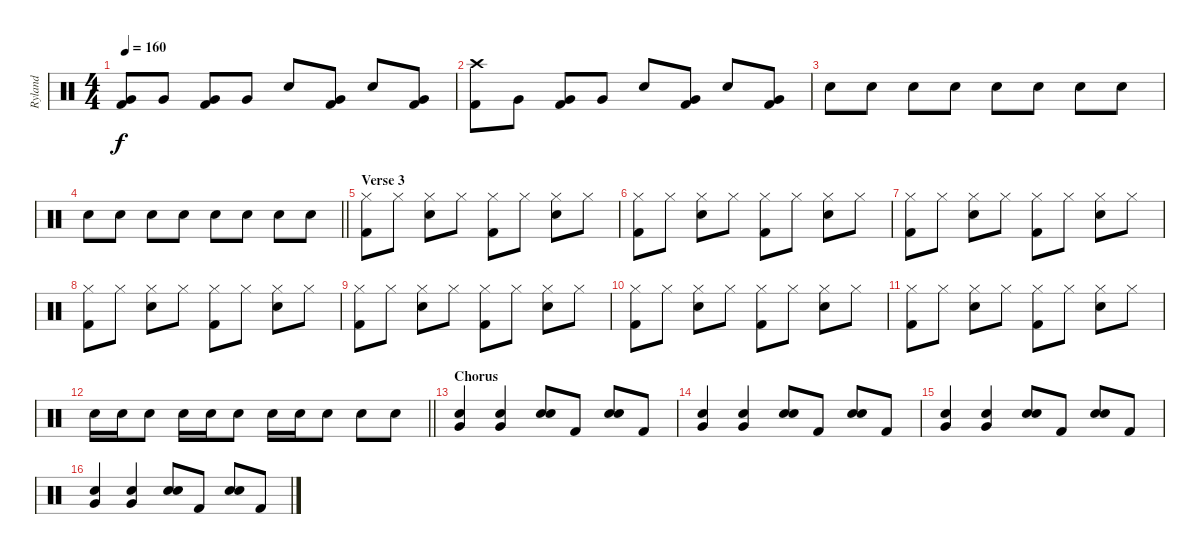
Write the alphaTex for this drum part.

\track ("Ryland" "Ryland") {instrument percussion}
\staff {score}
\articulation defaults
\ts (4 4)
\tempo 160
\clef neutral
\ks c
("Very Low Tom (hit)" "Kick (hit) 2").8{dy f} "Very Low Tom (hit)".8 ("Very Low Tom (hit)" "Kick (hit) 2").8 "Very Low Tom (hit)".8 "Electric Snare (hit)".8 ("Very Low Tom (hit)" "Kick (hit) 2").8 "Electric Snare (hit)".8 ("Very Low Tom (hit)" "Kick (hit) 2").8 |
("Crash high (hit)" "Kick (hit) 2").8 "Very Low Tom (hit)".8 ("Very Low Tom (hit)" "Kick (hit) 2").8 "Very Low Tom (hit)".8 "Electric Snare (hit)".8 ("Very Low Tom (hit)" "Kick (hit) 2").8 "Electric Snare (hit)".8 ("Very Low Tom (hit)" "Kick (hit) 2").8 |
"Electric Snare (hit)".8 "Electric Snare (hit)".8 "Electric Snare (hit)".8 "Electric Snare (hit)".8 "Electric Snare (hit)".8 "Electric Snare (hit)".8 "Electric Snare (hit)".8 "Electric Snare (hit)".8 |
\barLineRight lightlight "Electric Snare (hit)".8 "Electric Snare (hit)".8 "Electric Snare (hit)".8 "Electric Snare (hit)".8 "Electric Snare (hit)".8 "Electric Snare (hit)".8 "Electric Snare (hit)".8 "Electric Snare (hit)".8
|
\section ("" "Verse 3")
("Hi-Hat (closed)" "Kick (hit) 2").8 "Hi-Hat (closed)".8 ("Hi-Hat (closed)" "Electric Snare (hit)").8 "Hi-Hat (closed)".8 ("Hi-Hat (closed)" "Kick (hit) 2").8 "Hi-Hat (closed)".8 ("Hi-Hat (closed)" "Electric Snare (hit)").8 "Hi-Hat (closed)".8 |
("Hi-Hat (closed)" "Kick (hit) 2").8 "Hi-Hat (closed)".8 ("Hi-Hat (closed)" "Electric Snare (hit)").8 "Hi-Hat (closed)".8 ("Hi-Hat (closed)" "Kick (hit) 2").8 "Hi-Hat (closed)".8 ("Hi-Hat (closed)" "Electric Snare (hit)").8 "Hi-Hat (closed)".8 |
("Hi-Hat (closed)" "Kick (hit) 2").8 "Hi-Hat (closed)".8 ("Hi-Hat (closed)" "Electric Snare (hit)").8 "Hi-Hat (closed)".8 ("Hi-Hat (closed)" "Kick (hit) 2").8 "Hi-Hat (closed)".8 ("Hi-Hat (closed)" "Electric Snare (hit)").8 "Hi-Hat (closed)".8 |
("Hi-Hat (closed)" "Kick (hit) 2").8 "Hi-Hat (closed)".8 ("Hi-Hat (closed)" "Electric Snare (hit)").8 "Hi-Hat (closed)".8 ("Hi-Hat (closed)" "Kick (hit) 2").8 "Hi-Hat (closed)".8 ("Hi-Hat (closed)" "Electric Snare (hit)").8 "Hi-Hat (closed)".8 |
("Hi-Hat (closed)" "Kick (hit) 2").8 "Hi-Hat (closed)".8 ("Hi-Hat (closed)" "Electric Snare (hit)").8 "Hi-Hat (closed)".8 ("Hi-Hat (closed)" "Kick (hit) 2").8 "Hi-Hat (closed)".8 ("Hi-Hat (closed)" "Electric Snare (hit)").8 "Hi-Hat (closed)".8 |
("Hi-Hat (closed)" "Kick (hit) 2").8 "Hi-Hat (closed)".8 ("Hi-Hat (closed)" "Electric Snare (hit)").8 "Hi-Hat (closed)".8 ("Hi-Hat (closed)" "Kick (hit) 2").8 "Hi-Hat (closed)".8 ("Hi-Hat (closed)" "Electric Snare (hit)").8 "Hi-Hat (closed)".8 |
("Hi-Hat (closed)" "Kick (hit) 2").8 "Hi-Hat (closed)".8 ("Hi-Hat (closed)" "Electric Snare (hit)").8 "Hi-Hat (closed)".8 ("Hi-Hat (closed)" "Kick (hit) 2").8 "Hi-Hat (closed)".8 ("Hi-Hat (closed)" "Electric Snare (hit)").8 "Hi-Hat (closed)".8 |
\barLineRight lightlight "Electric Snare (hit)".16 "Electric Snare (hit)".16 "Electric Snare (hit)".8 "Electric Snare (hit)".16 "Electric Snare (hit)".16 "Electric Snare (hit)".8 "Electric Snare (hit)".16 "Electric Snare (hit)".16 "Electric Snare (hit)".8 "Electric Snare (hit)".8 "Electric Snare (hit)".8
|
\section ("" "Chorus")
("Very Low Tom (hit)" "Electric Snare (hit)").4 ("Very Low Tom (hit)" "Electric Snare (hit)").4 ("Electric Snare (hit)" "Electric Snare (hit)").8 "Kick (hit) 2".8 ("Electric Snare (hit)" "Electric Snare (hit)").8 "Kick (hit) 2".8 |
("Very Low Tom (hit)" "Electric Snare (hit)").4 ("Very Low Tom (hit)" "Electric Snare (hit)").4 ("Electric Snare (hit)" "Electric Snare (hit)").8 "Kick (hit) 2".8 ("Electric Snare (hit)" "Electric Snare (hit)").8 "Kick (hit) 2".8 |
("Very Low Tom (hit)" "Electric Snare (hit)").4 ("Very Low Tom (hit)" "Electric Snare (hit)").4 ("Electric Snare (hit)" "Electric Snare (hit)").8 "Kick (hit) 2".8 ("Electric Snare (hit)" "Electric Snare (hit)").8 "Kick (hit) 2".8 |
("Very Low Tom (hit)" "Electric Snare (hit)").4 ("Very Low Tom (hit)" "Electric Snare (hit)").4 ("Electric Snare (hit)" "Electric Snare (hit)").8 "Kick (hit) 2".8 ("Electric Snare (hit)" "Electric Snare (hit)").8 "Kick (hit) 2".8
